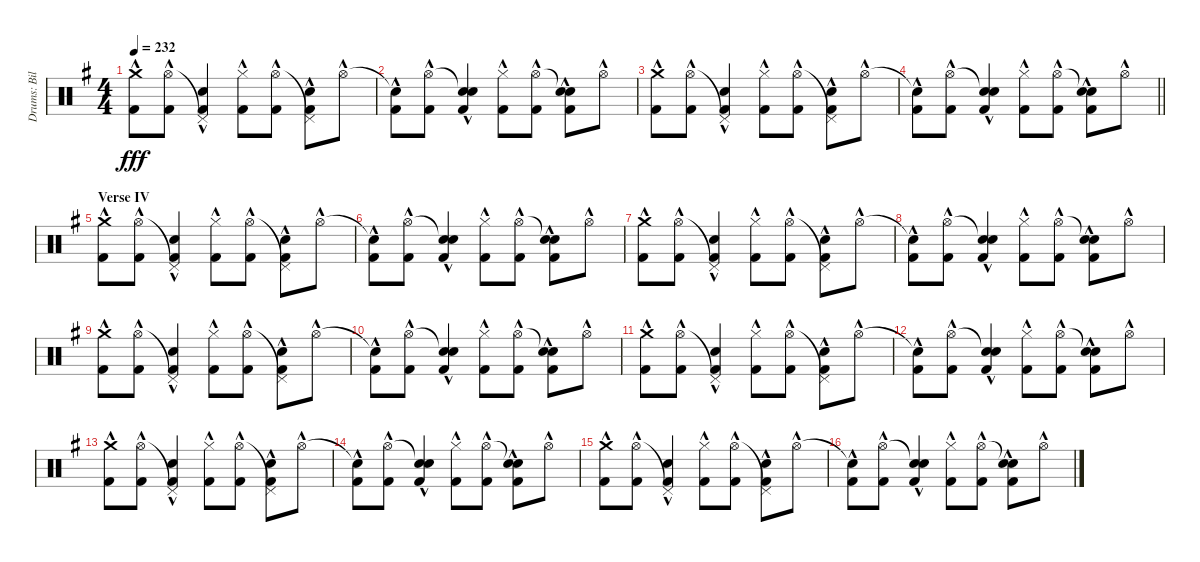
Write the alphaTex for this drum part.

\track ("Drums: Bill" "Drums: Bil") {instrument percussion}
\staff {score}
\articulation defaults
\ts (4 4)
\tempo 232
\clef neutral
\ks g
("Crash medium (hit)"{hac} "Kick (hit) 2"{hac}).8{dy fff} ("Hi-Hat (open)"{hac} "Kick (hit) 2"{hac}).8 ("Pedal Hi-Hat (hit)"{t} "Snare (hit) 2"{hac} "Kick (hit) 2"{hac}).4 ("Hi-Hat (closed)"{hac} "Kick (hit) 2"{hac}).8 ("Hi-Hat (open)"{hac} "Kick (hit) 2"{hac}).8 ("Pedal Hi-Hat (hit)"{t} "Snare (hit) 2"{hac} "Kick (hit) 2"{hac}).8 "Hi-Hat (open)"{hac}.8 |
("Snare (hit)"{t} "Kick (hit) 2"{hac}).8 ("Hi-Hat (open)"{hac} "Kick (hit) 2"{hac}).8 ("Snare (hit)"{t} "Snare (hit) 2"{hac} "Kick (hit) 2"{hac}).4 ("Hi-Hat (closed)"{hac} "Kick (hit) 2"{hac}).8 ("Hi-Hat (open)"{hac} "Kick (hit) 2"{hac}).8 ("Snare (hit)"{t} "Snare (hit) 2"{hac} "Kick (hit) 2"{hac}).8 "Hi-Hat (open)"{hac}.8 |
("Crash medium (hit)"{hac} "Kick (hit) 2"{hac}).8 ("Hi-Hat (open)"{hac} "Kick (hit) 2"{hac}).8 ("Pedal Hi-Hat (hit)"{t} "Snare (hit) 2"{hac} "Kick (hit) 2"{hac}).4 ("Hi-Hat (closed)"{hac} "Kick (hit) 2"{hac}).8 ("Hi-Hat (open)"{hac} "Kick (hit) 2"{hac}).8 ("Pedal Hi-Hat (hit)"{t} "Snare (hit) 2"{hac} "Kick (hit) 2"{hac}).8 "Hi-Hat (open)"{hac}.8 |
\barLineRight lightlight
("Snare (hit)"{t} "Kick (hit) 2"{hac}).8 ("Hi-Hat (open)"{hac} "Kick (hit) 2"{hac}).8 ("Snare (hit)"{t} "Snare (hit) 2"{hac} "Kick (hit) 2"{hac}).4 ("Hi-Hat (closed)"{hac} "Kick (hit) 2"{hac}).8 ("Hi-Hat (open)"{hac} "Kick (hit) 2"{hac}).8 ("Snare (hit)"{t} "Snare (hit) 2"{hac} "Kick (hit) 2"{hac}).8 "Hi-Hat (open)"{hac}.8 |
\section ("" "Verse IV")
("Crash medium (hit)"{hac} "Kick (hit) 2"{hac}).8 ("Hi-Hat (open)"{hac} "Kick (hit) 2"{hac}).8 ("Pedal Hi-Hat (hit)"{t} "Snare (hit) 2"{hac} "Kick (hit) 2"{hac}).4 ("Hi-Hat (closed)"{hac} "Kick (hit) 2"{hac}).8 ("Hi-Hat (open)"{hac} "Kick (hit) 2"{hac}).8 ("Pedal Hi-Hat (hit)"{t} "Snare (hit) 2"{hac} "Kick (hit) 2"{hac}).8 "Hi-Hat (open)"{hac}.8 |
("Snare (hit)"{t} "Kick (hit) 2"{hac}).8 ("Hi-Hat (open)"{hac} "Kick (hit) 2"{hac}).8 ("Snare (hit)"{t} "Snare (hit) 2"{hac} "Kick (hit) 2"{hac}).4 ("Hi-Hat (closed)"{hac} "Kick (hit) 2"{hac}).8 ("Hi-Hat (open)"{hac} "Kick (hit) 2"{hac}).8 ("Snare (hit)"{t} "Snare (hit) 2"{hac} "Kick (hit) 2"{hac}).8 "Hi-Hat (open)"{hac}.8 |
("Crash medium (hit)"{hac} "Kick (hit) 2"{hac}).8 ("Hi-Hat (open)"{hac} "Kick (hit) 2"{hac}).8 ("Pedal Hi-Hat (hit)"{t} "Snare (hit) 2"{hac} "Kick (hit) 2"{hac}).4 ("Hi-Hat (closed)"{hac} "Kick (hit) 2"{hac}).8 ("Hi-Hat (open)"{hac} "Kick (hit) 2"{hac}).8 ("Pedal Hi-Hat (hit)"{t} "Snare (hit) 2"{hac} "Kick (hit) 2"{hac}).8 "Hi-Hat (open)"{hac}.8 |
("Snare (hit)"{t} "Kick (hit) 2"{hac}).8 ("Hi-Hat (open)"{hac} "Kick (hit) 2"{hac}).8 ("Snare (hit)"{t} "Snare (hit) 2"{hac} "Kick (hit) 2"{hac}).4 ("Hi-Hat (closed)"{hac} "Kick (hit) 2"{hac}).8 ("Hi-Hat (open)"{hac} "Kick (hit) 2"{hac}).8 ("Snare (hit)"{t} "Snare (hit) 2"{hac} "Kick (hit) 2"{hac}).8 "Hi-Hat (open)"{hac}.8 |
("Crash medium (hit)"{hac} "Kick (hit) 2"{hac}).8 ("Hi-Hat (open)"{hac} "Kick (hit) 2"{hac}).8 ("Pedal Hi-Hat (hit)"{t} "Snare (hit) 2"{hac} "Kick (hit) 2"{hac}).4 ("Hi-Hat (closed)"{hac} "Kick (hit) 2"{hac}).8 ("Hi-Hat (open)"{hac} "Kick (hit) 2"{hac}).8 ("Pedal Hi-Hat (hit)"{t} "Snare (hit) 2"{hac} "Kick (hit) 2"{hac}).8 "Hi-Hat (open)"{hac}.8 |
("Snare (hit)"{t} "Kick (hit) 2"{hac}).8 ("Hi-Hat (open)"{hac} "Kick (hit) 2"{hac}).8 ("Snare (hit)"{t} "Snare (hit) 2"{hac} "Kick (hit) 2"{hac}).4 ("Hi-Hat (closed)"{hac} "Kick (hit) 2"{hac}).8 ("Hi-Hat (open)"{hac} "Kick (hit) 2"{hac}).8 ("Snare (hit)"{t} "Snare (hit) 2"{hac} "Kick (hit) 2"{hac}).8 "Hi-Hat (open)"{hac}.8 |
("Crash medium (hit)"{hac} "Kick (hit) 2"{hac}).8 ("Hi-Hat (open)"{hac} "Kick (hit) 2"{hac}).8 ("Pedal Hi-Hat (hit)"{t} "Snare (hit) 2"{hac} "Kick (hit) 2"{hac}).4 ("Hi-Hat (closed)"{hac} "Kick (hit) 2"{hac}).8 ("Hi-Hat (open)"{hac} "Kick (hit) 2"{hac}).8 ("Pedal Hi-Hat (hit)"{t} "Snare (hit) 2"{hac} "Kick (hit) 2"{hac}).8 "Hi-Hat (open)"{hac}.8 |
("Snare (hit)"{t} "Kick (hit) 2"{hac}).8 ("Hi-Hat (open)"{hac} "Kick (hit) 2"{hac}).8 ("Snare (hit)"{t} "Snare (hit) 2"{hac} "Kick (hit) 2"{hac}).4 ("Hi-Hat (closed)"{hac} "Kick (hit) 2"{hac}).8 ("Hi-Hat (open)"{hac} "Kick (hit) 2"{hac}).8 ("Snare (hit)"{t} "Snare (hit) 2"{hac} "Kick (hit) 2"{hac}).8 "Hi-Hat (open)"{hac}.8 |
("Crash medium (hit)"{hac} "Kick (hit) 2"{hac}).8 ("Hi-Hat (open)"{hac} "Kick (hit) 2"{hac}).8 ("Pedal Hi-Hat (hit)"{t} "Snare (hit) 2"{hac} "Kick (hit) 2"{hac}).4 ("Hi-Hat (closed)"{hac} "Kick (hit) 2"{hac}).8 ("Hi-Hat (open)"{hac} "Kick (hit) 2"{hac}).8 ("Pedal Hi-Hat (hit)"{t} "Snare (hit) 2"{hac} "Kick (hit) 2"{hac}).8 "Hi-Hat (open)"{hac}.8 |
("Snare (hit)"{t} "Kick (hit) 2"{hac}).8 ("Hi-Hat (open)"{hac} "Kick (hit) 2"{hac}).8 ("Snare (hit)"{t} "Snare (hit) 2"{hac} "Kick (hit) 2"{hac}).4 ("Hi-Hat (closed)"{hac} "Kick (hit) 2"{hac}).8 ("Hi-Hat (open)"{hac} "Kick (hit) 2"{hac}).8 ("Snare (hit)"{t} "Snare (hit) 2"{hac} "Kick (hit) 2"{hac}).8 "Hi-Hat (open)"{hac}.8 |
("Crash medium (hit)"{hac} "Kick (hit) 2"{hac}).8 ("Hi-Hat (open)"{hac} "Kick (hit) 2"{hac}).8 ("Pedal Hi-Hat (hit)"{t} "Snare (hit) 2"{hac} "Kick (hit) 2"{hac}).4 ("Hi-Hat (closed)"{hac} "Kick (hit) 2"{hac}).8 ("Hi-Hat (open)"{hac} "Kick (hit) 2"{hac}).8 ("Pedal Hi-Hat (hit)"{t} "Snare (hit) 2"{hac} "Kick (hit) 2"{hac}).8 "Hi-Hat (open)"{hac}.8 |
("Snare (hit)"{t} "Kick (hit) 2"{hac}).8 ("Hi-Hat (open)"{hac} "Kick (hit) 2"{hac}).8 ("Snare (hit)"{t} "Snare (hit) 2"{hac} "Kick (hit) 2"{hac}).4 ("Hi-Hat (closed)"{hac} "Kick (hit) 2"{hac}).8 ("Hi-Hat (open)"{hac} "Kick (hit) 2"{hac}).8 ("Snare (hit)"{t} "Snare (hit) 2"{hac} "Kick (hit) 2"{hac}).8 "Hi-Hat (open)"{hac}.8
